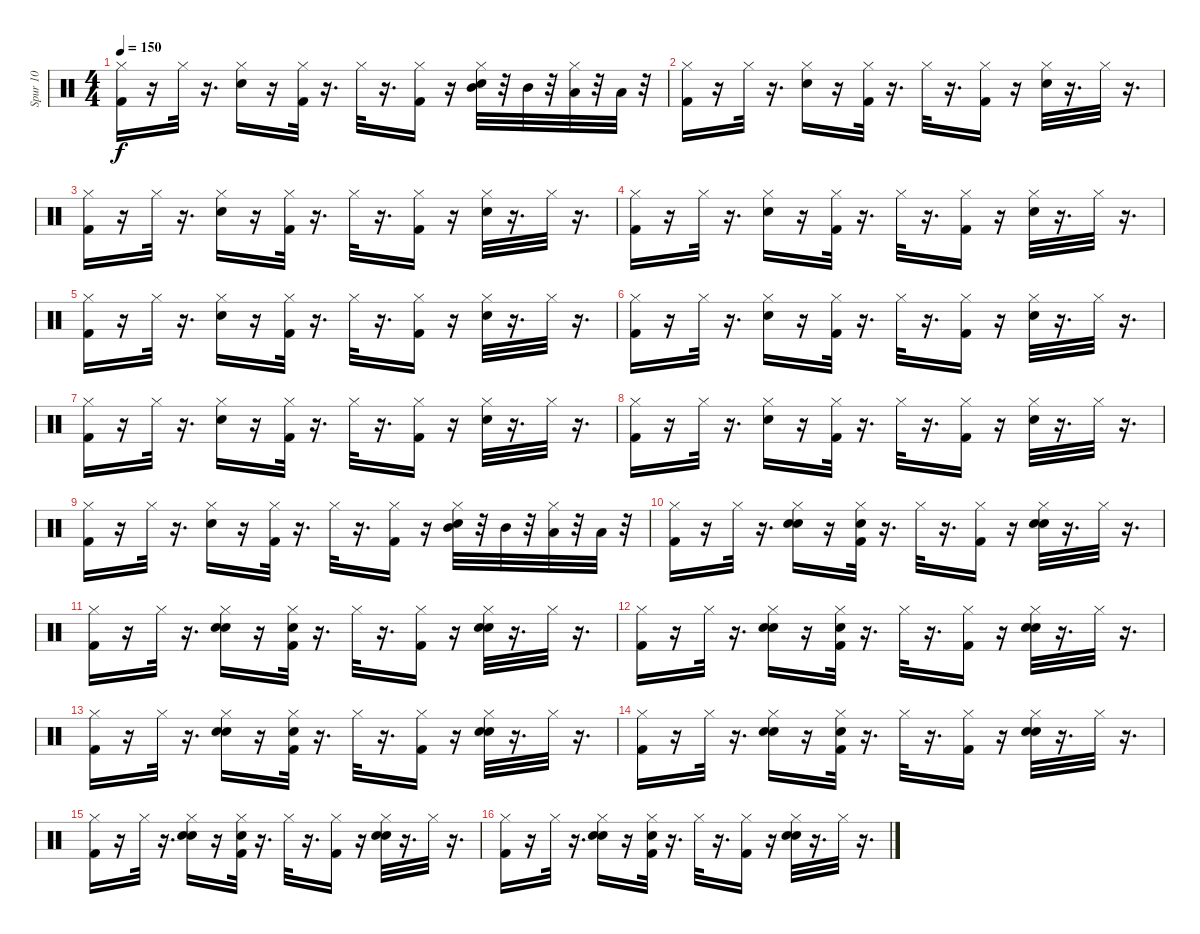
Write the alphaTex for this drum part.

\track ("Spur 10" "Spur 10") {instrument percussion}
\staff {score}
\articulation defaults
\ts (4 4)
\tempo 150
\clef neutral
\ks c
("Kick (hit) 2" "Hi-Hat (closed)").16{dy f} r.16 "Hi-Hat (closed)".32 r.16{d} ("Electric Snare (hit)" "Hi-Hat (closed)").16 r.16 ("Kick (hit) 2" "Hi-Hat (closed)").32 r.16{d} "Hi-Hat (closed)".32 r.16{d} ("Kick (hit) 2" "Hi-Hat (closed)").16 r.16 ("Electric Snare (hit)" "Mid Tom (hit)" "Hi-Hat (closed)").32 r.32 "Mid Tom (hit)".32 r.32 ("Hi-Hat (closed)" "Low Tom (hit)").32 r.32 "Low Tom (hit)".32 r.32 |
("Hi-Hat (closed)" "Kick (hit) 2").16 r.16 "Hi-Hat (closed)".32 r.16{d} ("Electric Snare (hit)" "Hi-Hat (closed)").16 r.16 ("Hi-Hat (closed)" "Kick (hit) 2").32 r.16{d} "Hi-Hat (closed)".32 r.16{d} ("Kick (hit) 2" "Hi-Hat (closed)").16 r.16 ("Electric Snare (hit)" "Hi-Hat (closed)").32 r.16{d} "Hi-Hat (closed)".32 r.16{d} |
("Kick (hit) 2" "Hi-Hat (closed)").16 r.16 "Hi-Hat (closed)".32 r.16{d} ("Electric Snare (hit)" "Hi-Hat (closed)").16 r.16 ("Kick (hit) 2" "Hi-Hat (closed)").32 r.16{d} "Hi-Hat (closed)".32 r.16{d} ("Kick (hit) 2" "Hi-Hat (closed)").16 r.16 ("Electric Snare (hit)" "Hi-Hat (closed)").32 r.16{d} "Hi-Hat (closed)".32 r.16{d} |
("Hi-Hat (closed)" "Kick (hit) 2").16 r.16 "Hi-Hat (closed)".32 r.16{d} ("Electric Snare (hit)" "Hi-Hat (closed)").16 r.16 ("Kick (hit) 2" "Hi-Hat (closed)").32 r.16{d} "Hi-Hat (closed)".32 r.16{d} ("Kick (hit) 2" "Hi-Hat (closed)").16 r.16 ("Electric Snare (hit)" "Hi-Hat (closed)").32 r.16{d} "Hi-Hat (closed)".32 r.16{d} |
("Kick (hit) 2" "Hi-Hat (closed)").16 r.16 "Hi-Hat (closed)".32 r.16{d} ("Electric Snare (hit)" "Hi-Hat (closed)").16 r.16 ("Kick (hit) 2" "Hi-Hat (closed)").32 r.16{d} "Hi-Hat (closed)".32 r.16{d} ("Kick (hit) 2" "Hi-Hat (closed)").16 r.16 ("Electric Snare (hit)" "Hi-Hat (closed)").32 r.16{d} "Hi-Hat (closed)".32 r.16{d} |
("Hi-Hat (closed)" "Kick (hit) 2").16 r.16 "Hi-Hat (closed)".32 r.16{d} ("Electric Snare (hit)" "Hi-Hat (closed)").16 r.16 ("Hi-Hat (closed)" "Kick (hit) 2").32 r.16{d} "Hi-Hat (closed)".32 r.16{d} ("Hi-Hat (closed)" "Kick (hit) 2").16 r.16 ("Hi-Hat (closed)" "Electric Snare (hit)").32 r.16{d} "Hi-Hat (closed)".32 r.16{d} |
("Kick (hit) 2" "Hi-Hat (closed)").16 r.16 "Hi-Hat (closed)".32 r.16{d} ("Electric Snare (hit)" "Hi-Hat (closed)").16 r.16 ("Kick (hit) 2" "Hi-Hat (closed)").32 r.16{d} "Hi-Hat (closed)".32 r.16{d} ("Kick (hit) 2" "Hi-Hat (closed)").16 r.16 ("Electric Snare (hit)" "Hi-Hat (closed)").32 r.16{d} "Hi-Hat (closed)".32 r.16{d} |
("Kick (hit) 2" "Hi-Hat (closed)").16 r.16 "Hi-Hat (closed)".32 r.16{d} ("Electric Snare (hit)" "Hi-Hat (closed)").16 r.16 ("Kick (hit) 2" "Hi-Hat (closed)").32 r.16{d} "Hi-Hat (closed)".32 r.16{d} ("Kick (hit) 2" "Hi-Hat (closed)").16 r.16 ("Electric Snare (hit)" "Hi-Hat (closed)").32 r.16{d} "Hi-Hat (closed)".32 r.16{d} |
("Hi-Hat (closed)" "Kick (hit) 2").16 r.16 "Hi-Hat (closed)".32 r.16{d} ("Electric Snare (hit)" "Hi-Hat (closed)").16 r.16 ("Kick (hit) 2" "Hi-Hat (closed)").32 r.16{d} "Hi-Hat (closed)".32 r.16{d} ("Kick (hit) 2" "Hi-Hat (closed)").16 r.16 ("Electric Snare (hit)" "Mid Tom (hit)" "Hi-Hat (closed)").32 r.32 "Mid Tom (hit)".32 r.32 ("Hi-Hat (closed)" "Low Tom (hit)").32 r.32 "Low Tom (hit)".32 r.32 |
("Hi-Hat (closed)" "Kick (hit) 2").16 r.16 "Hi-Hat (closed)".32 r.16{d} ("Hi-Hat (closed)" "Hand Clap (hit)" "Electric Snare (hit)").16 r.16 ("Hand Clap (hit)" "Hi-Hat (closed)" "Kick (hit) 2").32 r.16{d} "Hi-Hat (closed)".32 r.16{d} ("Hi-Hat (closed)" "Kick (hit) 2").16 r.16 ("Hand Clap (hit)" "Hi-Hat (closed)" "Electric Snare (hit)").32 r.16{d} "Hi-Hat (closed)".32 r.16{d} |
("Kick (hit) 2" "Hi-Hat (closed)").16 r.16 "Hi-Hat (closed)".32 r.16{d} ("Electric Snare (hit)" "Hi-Hat (closed)" "Hand Clap (hit)").16 r.16 ("Kick (hit) 2" "Hand Clap (hit)" "Hi-Hat (closed)").32 r.16{d} "Hi-Hat (closed)".32 r.16{d} ("Kick (hit) 2" "Hi-Hat (closed)").16 r.16 ("Electric Snare (hit)" "Hand Clap (hit)" "Hi-Hat (closed)").32 r.16{d} "Hi-Hat (closed)".32 r.16{d} |
("Hi-Hat (closed)" "Kick (hit) 2").16 r.16 "Hi-Hat (closed)".32 r.16{d} ("Electric Snare (hit)" "Hi-Hat (closed)" "Hand Clap (hit)").16 r.16 ("Kick (hit) 2" "Hi-Hat (closed)" "Hand Clap (hit)").32 r.16{d} "Hi-Hat (closed)".32 r.16{d} ("Kick (hit) 2" "Hi-Hat (closed)").16 r.16 ("Electric Snare (hit)" "Hi-Hat (closed)" "Hand Clap (hit)").32 r.16{d} "Hi-Hat (closed)".32 r.16{d} |
("Hi-Hat (closed)" "Kick (hit) 2").16 r.16 "Hi-Hat (closed)".32 r.16{d} ("Electric Snare (hit)" "Hi-Hat (closed)" "Hand Clap (hit)").16 r.16 ("Kick (hit) 2" "Hand Clap (hit)" "Hi-Hat (closed)").32 r.16{d} "Hi-Hat (closed)".32 r.16{d} ("Kick (hit) 2" "Hi-Hat (closed)").16 r.16 ("Electric Snare (hit)" "Hi-Hat (closed)" "Hand Clap (hit)").32 r.16{d} "Hi-Hat (closed)".32 r.16{d} |
("Hi-Hat (closed)" "Kick (hit) 2").16 r.16 "Hi-Hat (closed)".32 r.16{d} ("Hi-Hat (closed)" "Electric Snare (hit)" "Hand Clap (hit)").16 r.16 ("Kick (hit) 2" "Hi-Hat (closed)" "Hand Clap (hit)").32 r.16{d} "Hi-Hat (closed)".32 r.16{d} ("Hi-Hat (closed)" "Kick (hit) 2").16 r.16 ("Hi-Hat (closed)" "Hand Clap (hit)" "Electric Snare (hit)").32 r.16{d} "Hi-Hat (closed)".32 r.16{d} |
("Kick (hit) 2" "Hi-Hat (closed)").16 r.16 "Hi-Hat (closed)".32 r.16{d} ("Electric Snare (hit)" "Hand Clap (hit)" "Hi-Hat (closed)").16 r.16 ("Kick (hit) 2" "Hand Clap (hit)" "Hi-Hat (closed)").32 r.16{d} "Hi-Hat (closed)".32 r.16{d} ("Kick (hit) 2" "Hi-Hat (closed)").16 r.16 ("Electric Snare (hit)" "Hand Clap (hit)" "Hi-Hat (closed)").32 r.16{d} "Hi-Hat (closed)".32 r.16{d} |
("Kick (hit) 2" "Hi-Hat (closed)").16 r.16 "Hi-Hat (closed)".32 r.16{d} ("Electric Snare (hit)" "Hand Clap (hit)" "Hi-Hat (closed)").16 r.16 ("Kick (hit) 2" "Hi-Hat (closed)" "Hand Clap (hit)").32 r.16{d} "Hi-Hat (closed)".32 r.16{d} ("Kick (hit) 2" "Hi-Hat (closed)").16 r.16 ("Electric Snare (hit)" "Hi-Hat (closed)" "Hand Clap (hit)").32 r.16{d} "Hi-Hat (closed)".32 r.16{d}
